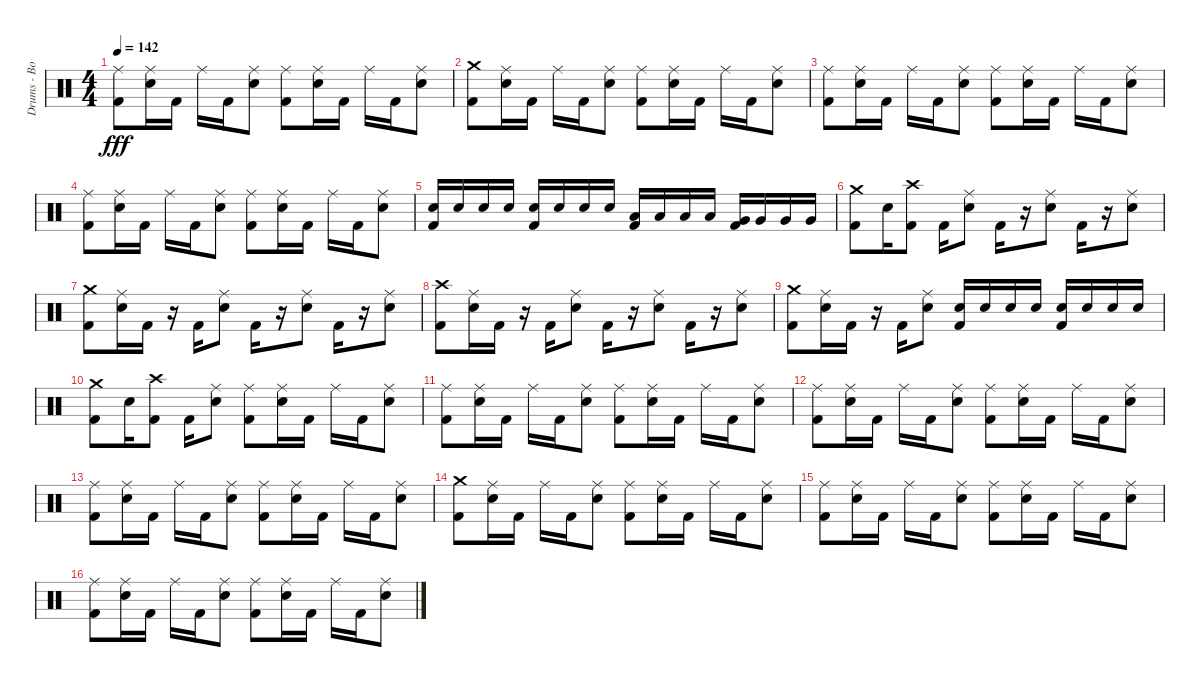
\track ("Drums - Bobby Schayer" "Drums - Bo") {instrument percussion}
\staff {score}
\articulation defaults
\ts (4 4)
\tempo 142
\clef neutral
\ks c
("Kick (hit) 2" "Ride (middle)").8{dy fff} ("Electric Snare (hit)" "Ride (middle)").16 "Kick (hit) 2".16 "Ride (middle)".16 "Kick (hit) 2".16 ("Electric Snare (hit)" "Ride (middle)").8 ("Kick (hit) 2" "Ride (middle)").8 ("Electric Snare (hit)" "Ride (middle)").16 "Kick (hit) 2".16 "Ride (middle)".16 "Kick (hit) 2".16 ("Electric Snare (hit)" "Ride (middle)").8 |
("Kick (hit) 2" "Crash medium (hit)").8 ("Electric Snare (hit)" "Ride (middle)").16 "Kick (hit) 2".16 "Ride (middle)".16 "Kick (hit) 2".16 ("Electric Snare (hit)" "Ride (middle)").8 ("Kick (hit) 2" "Ride (middle)").8 ("Electric Snare (hit)" "Ride (middle)").16 "Kick (hit) 2".16 "Ride (middle)".16 "Kick (hit) 2".16 ("Electric Snare (hit)" "Ride (middle)").8 |
("Kick (hit) 2" "Ride (middle)").8 ("Electric Snare (hit)" "Ride (middle)").16 "Kick (hit) 2".16 "Ride (middle)".16 "Kick (hit) 2".16 ("Electric Snare (hit)" "Ride (middle)").8 ("Kick (hit) 2" "Ride (middle)").8 ("Electric Snare (hit)" "Ride (middle)").16 "Kick (hit) 2".16 "Ride (middle)".16 "Kick (hit) 2".16 ("Electric Snare (hit)" "Ride (middle)").8 |
("Kick (hit) 2" "Ride (middle)").8 ("Electric Snare (hit)" "Ride (middle)").16 "Kick (hit) 2".16 "Ride (middle)".16 "Kick (hit) 2".16 ("Electric Snare (hit)" "Ride (middle)").8 ("Kick (hit) 2" "Ride (middle)").8 ("Electric Snare (hit)" "Ride (middle)").16 "Kick (hit) 2".16 "Ride (middle)".16 "Kick (hit) 2".16 ("Electric Snare (hit)" "Ride (middle)").8 |
("Electric Snare (hit)" "Kick (hit) 2").16 "Electric Snare (hit)".16 "Electric Snare (hit)".16 "Electric Snare (hit)".16 ("Electric Snare (hit)" "Kick (hit) 2").16 "Electric Snare (hit)".16 "Electric Snare (hit)".16 "Electric Snare (hit)".16 ("Low Tom (hit)" "Kick (hit) 2").16 "Low Tom (hit)".16 "Low Tom (hit)".16 "Low Tom (hit)".16 ("Very Low Tom (hit)" "Kick (hit) 2").16 "Very Low Tom (hit)".16 "Very Low Tom (hit)".16 "Very Low Tom (hit)".16 |
("Kick (hit) 2" "Crash medium (hit)").8 "Electric Snare (hit)".16 ("Kick (hit) 2" "Crash high (hit)").8 "Kick (hit) 2".16 ("Electric Snare (hit)" "Ride (middle)").8 "Kick (hit) 2".16 r.16 ("Electric Snare (hit)" "Ride (middle)").8 "Kick (hit) 2".16 r.16 ("Electric Snare (hit)" "Ride (middle)").8 |
("Kick (hit) 2" "Crash medium (hit)").8 ("Electric Snare (hit)" "Ride (middle)").16 "Kick (hit) 2".16 r.16 "Kick (hit) 2".16 ("Electric Snare (hit)" "Ride (middle)").8 "Kick (hit) 2".16 r.16 ("Electric Snare (hit)" "Ride (middle)").8 "Kick (hit) 2".16 r.16 ("Electric Snare (hit)" "Ride (middle)").8 |
("Kick (hit) 2" "Crash high (hit)").8 ("Electric Snare (hit)" "Ride (middle)").16 "Kick (hit) 2".16 r.16 "Kick (hit) 2".16 ("Electric Snare (hit)" "Ride (middle)").8 "Kick (hit) 2".16 r.16 ("Electric Snare (hit)" "Ride (middle)").8 "Kick (hit) 2".16 r.16 ("Electric Snare (hit)" "Ride (middle)").8 |
("Kick (hit) 2" "Crash medium (hit)").8 ("Electric Snare (hit)" "Ride (middle)").16 "Kick (hit) 2".16 r.16 "Kick (hit) 2".16 ("Electric Snare (hit)" "Ride (middle)").8 ("Electric Snare (hit)" "Kick (hit) 2").16 "Electric Snare (hit)".16 "Electric Snare (hit)".16 "Electric Snare (hit)".16 ("Electric Snare (hit)" "Kick (hit) 2").16 "Electric Snare (hit)".16 "Electric Snare (hit)".16 "Electric Snare (hit)".16 |
("Kick (hit) 2" "Crash medium (hit)").8 "Electric Snare (hit)".16 ("Kick (hit) 2" "Crash high (hit)").8 "Kick (hit) 2".16 ("Electric Snare (hit)" "Ride (middle)").8 ("Kick (hit) 2" "Ride (middle)").8 ("Electric Snare (hit)" "Ride (middle)").16 "Kick (hit) 2".16 "Ride (middle)".16 "Kick (hit) 2".16 ("Electric Snare (hit)" "Ride (middle)").8 |
("Kick (hit) 2" "Ride (middle)").8 ("Electric Snare (hit)" "Ride (middle)").16 "Kick (hit) 2".16 "Ride (middle)".16 "Kick (hit) 2".16 ("Electric Snare (hit)" "Ride (middle)").8 ("Kick (hit) 2" "Ride (middle)").8 ("Electric Snare (hit)" "Ride (middle)").16 "Kick (hit) 2".16 "Ride (middle)".16 "Kick (hit) 2".16 ("Electric Snare (hit)" "Ride (middle)").8 |
("Kick (hit) 2" "Ride (middle)").8 ("Electric Snare (hit)" "Ride (middle)").16 "Kick (hit) 2".16 "Ride (middle)".16 "Kick (hit) 2".16 ("Electric Snare (hit)" "Ride (middle)").8 ("Kick (hit) 2" "Ride (middle)").8 ("Electric Snare (hit)" "Ride (middle)").16 "Kick (hit) 2".16 "Ride (middle)".16 "Kick (hit) 2".16 ("Electric Snare (hit)" "Ride (middle)").8 |
("Kick (hit) 2" "Ride (middle)").8 ("Electric Snare (hit)" "Ride (middle)").16 "Kick (hit) 2".16 "Ride (middle)".16 "Kick (hit) 2".16 ("Electric Snare (hit)" "Ride (middle)").8 ("Kick (hit) 2" "Ride (middle)").8 ("Electric Snare (hit)" "Ride (middle)").16 "Kick (hit) 2".16 "Ride (middle)".16 "Kick (hit) 2".16 ("Electric Snare (hit)" "Ride (middle)").8 |
("Kick (hit) 2" "Crash medium (hit)").8 ("Electric Snare (hit)" "Ride (middle)").16 "Kick (hit) 2".16 "Ride (middle)".16 "Kick (hit) 2".16 ("Electric Snare (hit)" "Ride (middle)").8 ("Kick (hit) 2" "Ride (middle)").8 ("Electric Snare (hit)" "Ride (middle)").16 "Kick (hit) 2".16 "Ride (middle)".16 "Kick (hit) 2".16 ("Electric Snare (hit)" "Ride (middle)").8 |
("Kick (hit) 2" "Ride (middle)").8 ("Electric Snare (hit)" "Ride (middle)").16 "Kick (hit) 2".16 "Ride (middle)".16 "Kick (hit) 2".16 ("Electric Snare (hit)" "Ride (middle)").8 ("Kick (hit) 2" "Ride (middle)").8 ("Electric Snare (hit)" "Ride (middle)").16 "Kick (hit) 2".16 "Ride (middle)".16 "Kick (hit) 2".16 ("Electric Snare (hit)" "Ride (middle)").8 |
("Kick (hit) 2" "Ride (middle)").8 ("Electric Snare (hit)" "Ride (middle)").16 "Kick (hit) 2".16 "Ride (middle)".16 "Kick (hit) 2".16 ("Electric Snare (hit)" "Ride (middle)").8 ("Kick (hit) 2" "Ride (middle)").8 ("Electric Snare (hit)" "Ride (middle)").16 "Kick (hit) 2".16 "Ride (middle)".16 "Kick (hit) 2".16 ("Electric Snare (hit)" "Ride (middle)").8
